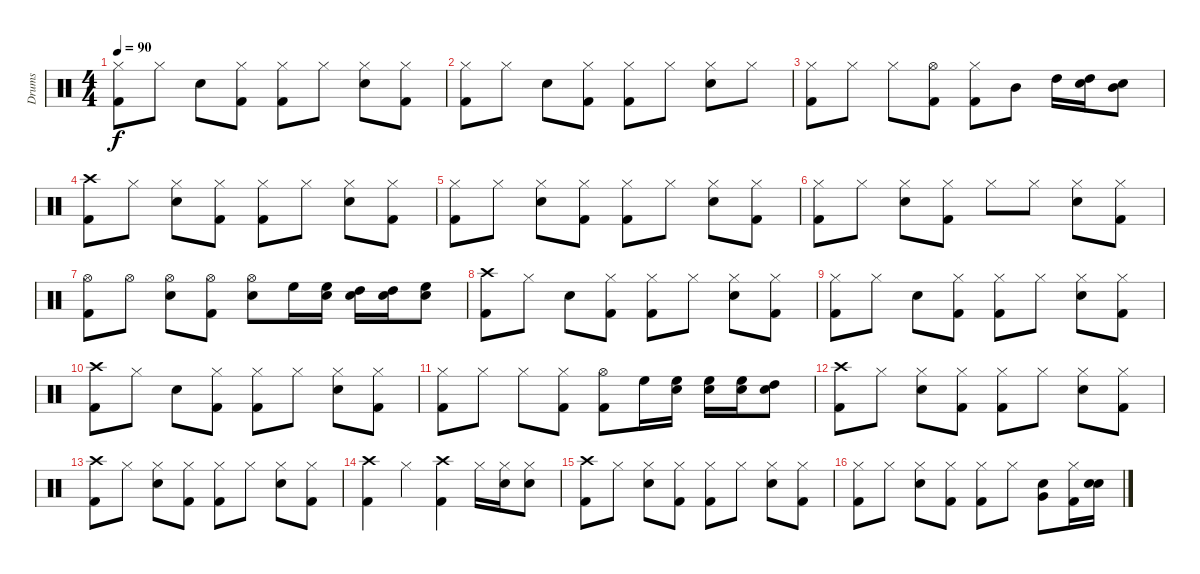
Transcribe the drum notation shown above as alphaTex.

\track ("Drums" "Drums") {instrument percussion}
\staff {score}
\articulation defaults
\ts (4 4)
\tempo 90
\clef neutral
\ks c
("Hi-Hat (closed)" "Kick (hit) 2").8{dy f} "Hi-Hat (closed)".8 "Snare (hit) 2".8 ("Hi-Hat (closed)" "Kick (hit) 2").8 ("Hi-Hat (closed)" "Kick (hit) 2").8 "Hi-Hat (closed)".8 ("Snare (hit) 2" "Hi-Hat (closed)").8 ("Hi-Hat (closed)" "Kick (hit) 2").8 |
("Hi-Hat (closed)" "Kick (hit) 2").8 "Hi-Hat (closed)".8 "Snare (hit) 2".8 ("Hi-Hat (closed)" "Kick (hit) 2").8 ("Hi-Hat (closed)" "Kick (hit) 2").8 "Hi-Hat (closed)".8 ("Snare (hit) 2" "Hi-Hat (closed)").8 "Hi-Hat (closed)".8 |
("Hi-Hat (closed)" "Kick (hit) 2").8 "Hi-Hat (closed)".8 "Hi-Hat (closed)".8 ("Hi-Hat (open)" "Kick (hit) 2").8 ("Hi-Hat (closed)" "Kick (hit) 2").8 "Mid Tom (hit)".8 "High Tom (hit)".16 ("Snare (hit)" "High Tom (hit)").16 ("Snare (hit)" "Mid Tom (hit)").8 |
("Crash high (hit)" "Kick (hit) 2").8 "Hi-Hat (closed)".8 ("Snare (hit) 2" "Hi-Hat (closed)").8 ("Hi-Hat (closed)" "Kick (hit) 2").8 ("Hi-Hat (closed)" "Kick (hit) 2").8 "Hi-Hat (closed)".8 ("Snare (hit) 2" "Hi-Hat (closed)").8 ("Hi-Hat (closed)" "Kick (hit) 2").8 |
("Hi-Hat (closed)" "Kick (hit) 2").8 "Hi-Hat (closed)".8 ("Snare (hit) 2" "Hi-Hat (closed)").8 ("Hi-Hat (closed)" "Kick (hit) 2").8 ("Hi-Hat (closed)" "Kick (hit) 2").8 "Hi-Hat (closed)".8 ("Snare (hit) 2" "Hi-Hat (closed)").8 ("Hi-Hat (closed)" "Kick (hit) 2").8 |
("Hi-Hat (closed)" "Kick (hit) 2").8 "Hi-Hat (closed)".8 ("Snare (hit) 2" "Hi-Hat (closed)").8 ("Hi-Hat (closed)" "Kick (hit) 2").8 "Hi-Hat (closed)".8 "Hi-Hat (closed)".8 ("Snare (hit) 2" "Hi-Hat (closed)").8 ("Hi-Hat (closed)" "Kick (hit) 2").8 |
("Hi-Hat (open)" "Kick (hit) 2").8 "Hi-Hat (open)".8 ("Snare (hit) 2" "Hi-Hat (open)").8 ("Hi-Hat (open)" "Kick (hit) 2").8 ("Snare (hit) 2" "Hi-Hat (open)").8 "High Floor Tom (hit)".16 ("Snare (hit)" "High Floor Tom (hit)").16 ("Snare (hit)" "High Tom (hit)").16 ("Snare (hit)" "High Tom (hit)").16 ("Snare (hit)" "High Floor Tom (hit)").8 |
("Crash high (hit)" "Kick (hit) 2").8 "Hi-Hat (closed)".8 "Snare (hit) 2".8 ("Hi-Hat (closed)" "Kick (hit) 2").8 ("Hi-Hat (closed)" "Kick (hit) 2").8 "Hi-Hat (closed)".8 ("Snare (hit) 2" "Hi-Hat (closed)").8 ("Hi-Hat (closed)" "Kick (hit) 2").8 |
("Hi-Hat (closed)" "Kick (hit) 2").8 "Hi-Hat (closed)".8 "Snare (hit) 2".8 ("Hi-Hat (closed)" "Kick (hit) 2").8 ("Hi-Hat (closed)" "Kick (hit) 2").8 "Hi-Hat (closed)".8 ("Snare (hit) 2" "Hi-Hat (closed)").8 ("Hi-Hat (closed)" "Kick (hit) 2").8 |
("Crash high (hit)" "Kick (hit) 2").8 "Hi-Hat (closed)".8 "Snare (hit) 2".8 ("Hi-Hat (closed)" "Kick (hit) 2").8 ("Hi-Hat (closed)" "Kick (hit) 2").8 "Hi-Hat (closed)".8 ("Snare (hit) 2" "Hi-Hat (closed)").8 ("Hi-Hat (closed)" "Kick (hit) 2").8 |
("Hi-Hat (closed)" "Kick (hit) 2").8 "Hi-Hat (closed)".8 "Hi-Hat (closed)".8 ("Hi-Hat (closed)" "Kick (hit) 2").8 ("Hi-Hat (open)" "Kick (hit) 2").8 "High Floor Tom (hit)".16 ("Snare (hit)" "High Floor Tom (hit)").16 ("Snare (hit)" "High Floor Tom (hit)").16 ("Snare (hit)" "High Floor Tom (hit)").16 ("Snare (hit)" "High Tom (hit)").8 |
("Crash high (hit)" "Kick (hit) 2").8 "Hi-Hat (closed)".8 ("Snare (hit) 2" "Hi-Hat (closed)").8 ("Hi-Hat (closed)" "Kick (hit) 2").8 ("Hi-Hat (closed)" "Kick (hit) 2").8 "Hi-Hat (closed)".8 ("Snare (hit) 2" "Hi-Hat (closed)").8 ("Hi-Hat (closed)" "Kick (hit) 2").8 |
("Crash high (hit)" "Kick (hit) 2").8 "Hi-Hat (closed)".8 ("Snare (hit) 2" "Hi-Hat (closed)").8 ("Hi-Hat (closed)" "Kick (hit) 2").8 ("Hi-Hat (closed)" "Kick (hit) 2").8 "Hi-Hat (closed)".8 ("Snare (hit) 2" "Hi-Hat (closed)").8 ("Hi-Hat (closed)" "Kick (hit) 2").8 |
("Crash high (hit)" "Kick (hit) 2").4 "Hi-Hat (closed)".4 ("Crash high (hit)" "Kick (hit) 2").4 "Hi-Hat (closed)".16 ("Snare (hit)" "Hi-Hat (closed)").16 ("Snare (hit)" "Hi-Hat (closed)").8 |
("Crash high (hit)" "Kick (hit) 2").8 "Hi-Hat (closed)".8 ("Snare (hit) 2" "Hi-Hat (closed)").8 ("Hi-Hat (closed)" "Kick (hit) 2").8 ("Hi-Hat (closed)" "Kick (hit) 2").8 "Hi-Hat (closed)".8 ("Snare (hit) 2" "Hi-Hat (closed)").8 ("Hi-Hat (closed)" "Kick (hit) 2").8 |
("Hi-Hat (closed)" "Kick (hit) 2").8 "Hi-Hat (closed)".8 ("Snare (hit) 2" "Hi-Hat (closed)").8 ("Hi-Hat (closed)" "Kick (hit) 2").8 ("Hi-Hat (closed)" "Kick (hit) 2").8 "Hi-Hat (closed)".8 ("Very Low Tom (hit)" "Snare (hit) 2").8 ("Hi-Hat (closed)" "Kick (hit) 2").16 ("Snare (hit)" "Snare (hit) 2").16
